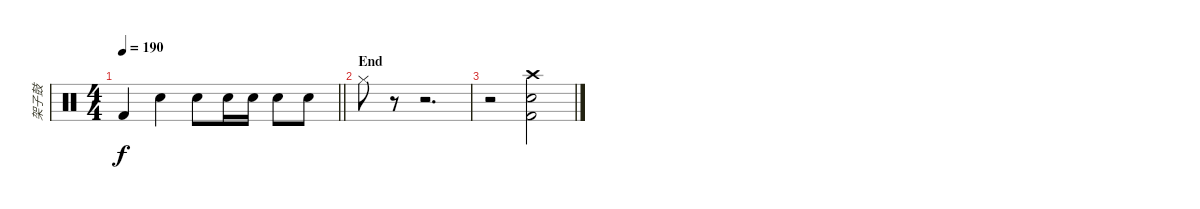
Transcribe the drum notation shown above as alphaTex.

\track ("架子鼓" "架子鼓") {instrument percussion}
\staff {score}
\articulation defaults
\ts (4 4)
\tempo 190
\clef neutral
\barLineRight lightlight
\ks c "Kick (hit) 2".4{dy f} "Electric Snare (hit)".4 "Electric Snare (hit)".8 "Electric Snare (hit)".16 "Electric Snare (hit)".16 "Electric Snare (hit)".8 "Electric Snare (hit)".8
|
\section ("" "End")
"Hi-Hat (closed)".8 r.8 r.2{d} |
r.2 ("Crash high (hit)" "Electric Snare (hit)" "Kick (hit) 2").2
